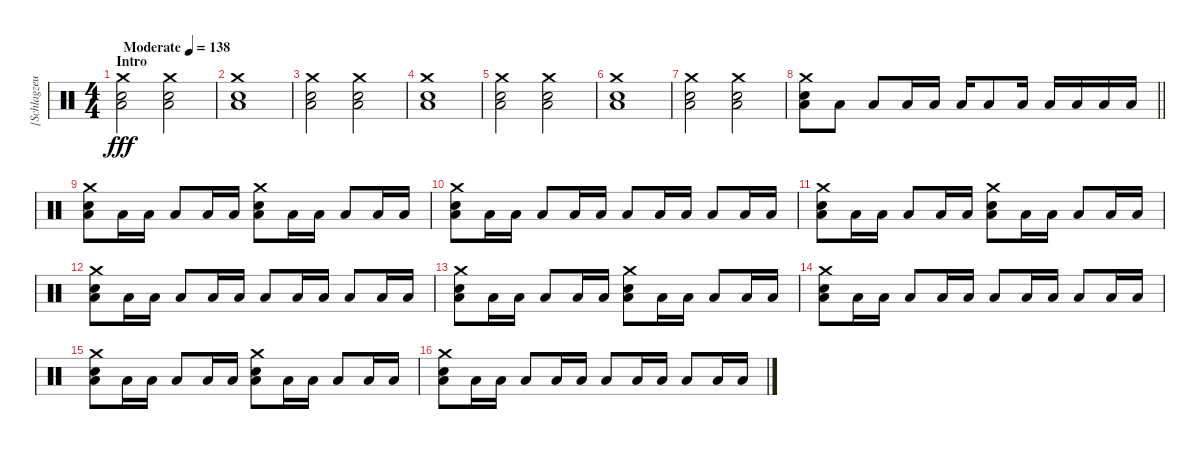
\track ("[Schlagzeug]" "[Schlagzeu") {instrument percussion}
\staff {score}
\articulation defaults
\ts (4 4)
\section ("" "Intro")
\tempo (138 "Moderate")
\clef neutral
\ks c
("Low Floor Tom (hit)" "Snare (hit) 2" "Crash medium (hit)").2{dy fff} ("Low Floor Tom (hit)" "Snare (hit) 2" "Crash medium (hit)").2 |
("Low Floor Tom (hit)" "Snare (hit) 2" "Crash medium (hit)").1 |
("Low Floor Tom (hit)" "Snare (hit) 2" "Crash medium (hit)").2 ("Low Floor Tom (hit)" "Snare (hit) 2" "Crash medium (hit)").2 |
("Low Floor Tom (hit)" "Snare (hit) 2" "Crash medium (hit)").1 |
("Low Floor Tom (hit)" "Snare (hit) 2" "Crash medium (hit)").2 ("Low Floor Tom (hit)" "Snare (hit) 2" "Crash medium (hit)").2 |
("Low Floor Tom (hit)" "Snare (hit) 2" "Crash medium (hit)").1 |
("Low Floor Tom (hit)" "Snare (hit) 2" "Crash medium (hit)").2 ("Low Floor Tom (hit)" "Snare (hit) 2" "Crash medium (hit)").2 |
\barLineRight lightlight
("Low Floor Tom (hit)" "Snare (hit) 2" "Crash medium (hit)").8 "Low Floor Tom (hit)".8 "Low Floor Tom (hit)".8 "Low Floor Tom (hit)".16 "Low Floor Tom (hit)".16 "Low Tom (hit)".16 "Low Floor Tom (hit)".8 "Low Floor Tom (hit)".16 "Low Tom (hit)".16 "Low Floor Tom (hit)".16 "Low Floor Tom (hit)".16 "Low Floor Tom (hit)".16 |
("Low Floor Tom (hit)" "Snare (hit) 2" "Crash medium (hit)").8 "Low Floor Tom (hit)".16 "Low Floor Tom (hit)".16 "Low Tom (hit)".8 "Low Floor Tom (hit)".16 "Low Floor Tom (hit)".16 ("Low Floor Tom (hit)" "Snare (hit) 2" "Crash medium (hit)").8 "Low Floor Tom (hit)".16 "Low Floor Tom (hit)".16 "Low Tom (hit)".8 "Low Floor Tom (hit)".16 "Low Floor Tom (hit)".16 |
("Low Floor Tom (hit)" "Snare (hit) 2" "Crash medium (hit)").8 "Low Floor Tom (hit)".16 "Low Floor Tom (hit)".16 "Low Floor Tom (hit)".8 "Low Floor Tom (hit)".16 "Low Floor Tom (hit)".16 "Low Tom (hit)".8 "Low Floor Tom (hit)".16 "Low Floor Tom (hit)".16 "Low Tom (hit)".8 "Low Floor Tom (hit)".16 "Low Floor Tom (hit)".16 |
("Low Floor Tom (hit)" "Snare (hit) 2" "Crash medium (hit)").8 "Low Floor Tom (hit)".16 "Low Floor Tom (hit)".16 "Low Tom (hit)".8 "Low Floor Tom (hit)".16 "Low Floor Tom (hit)".16 ("Low Floor Tom (hit)" "Snare (hit) 2" "Crash medium (hit)").8 "Low Floor Tom (hit)".16 "Low Floor Tom (hit)".16 "Low Tom (hit)".8 "Low Floor Tom (hit)".16 "Low Floor Tom (hit)".16 |
("Low Floor Tom (hit)" "Snare (hit) 2" "Crash medium (hit)").8 "Low Floor Tom (hit)".16 "Low Floor Tom (hit)".16 "Low Floor Tom (hit)".8 "Low Floor Tom (hit)".16 "Low Floor Tom (hit)".16 "Low Tom (hit)".8 "Low Floor Tom (hit)".16 "Low Floor Tom (hit)".16 "Low Tom (hit)".8 "Low Floor Tom (hit)".16 "Low Floor Tom (hit)".16 |
("Low Floor Tom (hit)" "Snare (hit) 2" "Crash medium (hit)").8 "Low Floor Tom (hit)".16 "Low Floor Tom (hit)".16 "Low Tom (hit)".8 "Low Floor Tom (hit)".16 "Low Floor Tom (hit)".16 ("Low Floor Tom (hit)" "Snare (hit) 2" "Crash medium (hit)").8 "Low Floor Tom (hit)".16 "Low Floor Tom (hit)".16 "Low Tom (hit)".8 "Low Floor Tom (hit)".16 "Low Floor Tom (hit)".16 |
("Low Floor Tom (hit)" "Snare (hit) 2" "Crash medium (hit)").8 "Low Floor Tom (hit)".16 "Low Floor Tom (hit)".16 "Low Floor Tom (hit)".8 "Low Floor Tom (hit)".16 "Low Floor Tom (hit)".16 "Low Tom (hit)".8 "Low Floor Tom (hit)".16 "Low Floor Tom (hit)".16 "Low Tom (hit)".8 "Low Floor Tom (hit)".16 "Low Floor Tom (hit)".16 |
("Low Floor Tom (hit)" "Snare (hit) 2" "Crash medium (hit)").8 "Low Floor Tom (hit)".16 "Low Floor Tom (hit)".16 "Low Tom (hit)".8 "Low Floor Tom (hit)".16 "Low Floor Tom (hit)".16 ("Low Floor Tom (hit)" "Snare (hit) 2" "Crash medium (hit)").8 "Low Floor Tom (hit)".16 "Low Floor Tom (hit)".16 "Low Tom (hit)".8 "Low Floor Tom (hit)".16 "Low Floor Tom (hit)".16 |
("Low Floor Tom (hit)" "Snare (hit) 2" "Crash medium (hit)").8 "Low Floor Tom (hit)".16 "Low Floor Tom (hit)".16 "Low Floor Tom (hit)".8 "Low Floor Tom (hit)".16 "Low Floor Tom (hit)".16 "Low Tom (hit)".8 "Low Floor Tom (hit)".16 "Low Floor Tom (hit)".16 "Low Tom (hit)".8 "Low Floor Tom (hit)".16 "Low Floor Tom (hit)".16
